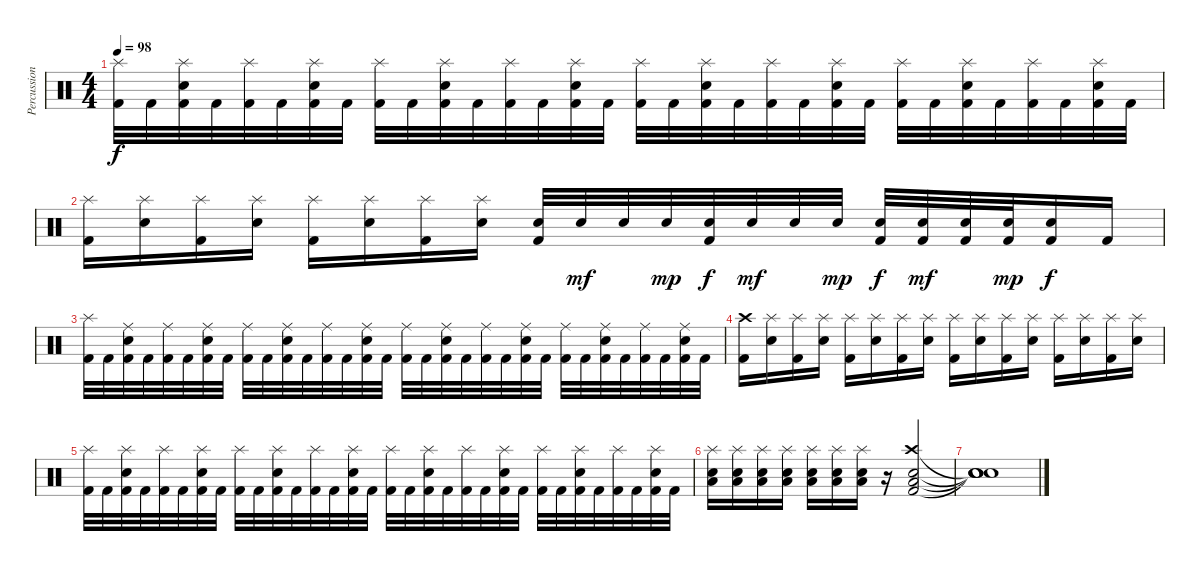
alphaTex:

\track ("Percussion" "Percussion") {instrument percussion}
\staff {score}
\articulation defaults
\ts (4 4)
\tempo 98
\clef neutral
\ks c
("Splash (hit)" "Kick (hit) 2").32{dy f} "Kick (hit) 2".32 ("Splash (hit)" "Snare (hit) 2" "Kick (hit) 2").32 "Kick (hit) 2".32 ("Splash (hit)" "Kick (hit) 2").32 "Kick (hit) 2".32 ("Splash (hit)" "Snare (hit) 2" "Kick (hit) 2").32 "Kick (hit) 2".32 ("Splash (hit)" "Kick (hit) 2").32 "Kick (hit) 2".32 ("Splash (hit)" "Snare (hit) 2" "Kick (hit) 2").32 "Kick (hit) 2".32 ("Splash (hit)" "Kick (hit) 2").32 "Kick (hit) 2".32 ("Splash (hit)" "Snare (hit) 2" "Kick (hit) 2").32 "Kick (hit) 2".32 ("Splash (hit)" "Kick (hit) 2").32 "Kick (hit) 2".32 ("Splash (hit)" "Snare (hit) 2" "Kick (hit) 2").32 "Kick (hit) 2".32 ("Splash (hit)" "Kick (hit) 2").32 "Kick (hit) 2".32 ("Splash (hit)" "Snare (hit) 2" "Kick (hit) 2").32 "Kick (hit) 2".32 ("Splash (hit)" "Kick (hit) 2").32 "Kick (hit) 2".32 ("Splash (hit)" "Snare (hit) 2" "Kick (hit) 2").32 "Kick (hit) 2".32 ("Splash (hit)" "Kick (hit) 2").32 "Kick (hit) 2".32 ("Splash (hit)" "Snare (hit) 2" "Kick (hit) 2").32 "Kick (hit) 2".32 |
("Splash (hit)" "Kick (hit) 2").16 ("Splash (hit)" "Snare (hit) 2").16 ("Splash (hit)" "Kick (hit) 2").16 ("Splash (hit)" "Snare (hit) 2").16 ("Splash (hit)" "Kick (hit) 2").16 ("Splash (hit)" "Snare (hit) 2").16 ("Splash (hit)" "Kick (hit) 2").16 ("Splash (hit)" "Snare (hit) 2").16 ("Snare (hit) 2" "Kick (hit) 2").32 "Snare (hit) 2".32{dy mf} "Snare (hit) 2".32 "Snare (hit) 2".32{dy mp} ("Snare (hit) 2" "Kick (hit) 2").32{dy f} "Snare (hit) 2".32{dy mf} "Snare (hit) 2".32 "Snare (hit) 2".32{dy mp} ("Snare (hit) 2" "Kick (hit) 2").32{dy f} ("Snare (hit) 2" "Kick (hit) 2").32{dy mf} ("Snare (hit) 2" "Kick (hit) 2").32 ("Snare (hit) 2" "Kick (hit) 2").32{dy mp} ("Snare (hit) 2" "Kick (hit) 2").16{dy f} "Kick (hit) 2".16 |
("Splash (hit)" "Kick (hit) 2").32 "Kick (hit) 2".32 ("Ride (middle)" "Snare (hit) 2" "Kick (hit) 2").32 "Kick (hit) 2".32 ("Ride (middle)" "Kick (hit) 2").32 "Kick (hit) 2".32 ("Ride (middle)" "Snare (hit) 2" "Kick (hit) 2").32 "Kick (hit) 2".32 ("Ride (middle)" "Kick (hit) 2").32 "Kick (hit) 2".32 ("Ride (middle)" "Snare (hit) 2" "Kick (hit) 2").32 "Kick (hit) 2".32 ("Ride (middle)" "Kick (hit) 2").32 "Kick (hit) 2".32 ("Ride (middle)" "Snare (hit) 2" "Kick (hit) 2").32 "Kick (hit) 2".32 ("Ride (middle)" "Kick (hit) 2").32 "Kick (hit) 2".32 ("Ride (middle)" "Snare (hit) 2" "Kick (hit) 2").32 "Kick (hit) 2".32 ("Ride (middle)" "Kick (hit) 2").32 "Kick (hit) 2".32 ("Ride (middle)" "Snare (hit) 2" "Kick (hit) 2").32 "Kick (hit) 2".32 ("Ride (middle)" "Kick (hit) 2").32 "Kick (hit) 2".32 ("Ride (middle)" "Snare (hit) 2" "Kick (hit) 2").32 "Kick (hit) 2".32 ("Ride (middle)" "Kick (hit) 2").32 "Kick (hit) 2".32 ("Ride (middle)" "Snare (hit) 2" "Kick (hit) 2").32 "Kick (hit) 2".32 |
("Crash high (hit)" "Kick (hit) 2").16 ("Splash (hit)" "Snare (hit) 2").16 ("Splash (hit)" "Kick (hit) 2").16 ("Splash (hit)" "Snare (hit) 2").16 ("Splash (hit)" "Kick (hit) 2").16 ("Splash (hit)" "Snare (hit) 2").16 ("Splash (hit)" "Kick (hit) 2").16 ("Splash (hit)" "Snare (hit) 2").16 ("Splash (hit)" "Kick (hit) 2").16 ("Splash (hit)" "Snare (hit) 2").16 ("Splash (hit)" "Kick (hit) 2").16 ("Splash (hit)" "Snare (hit) 2").16 ("Splash (hit)" "Kick (hit) 2").16 ("Splash (hit)" "Snare (hit) 2").16 ("Splash (hit)" "Kick (hit) 2").16 ("Splash (hit)" "Snare (hit) 2").16 |
("Splash (hit)" "Kick (hit) 2").32 "Kick (hit) 2".32 ("Splash (hit)" "Snare (hit) 2" "Kick (hit) 2").32 "Kick (hit) 2".32 ("Splash (hit)" "Kick (hit) 2").32 "Kick (hit) 2".32 ("Splash (hit)" "Snare (hit) 2" "Kick (hit) 2").32 "Kick (hit) 2".32 ("Splash (hit)" "Kick (hit) 2").32 "Kick (hit) 2".32 ("Splash (hit)" "Snare (hit) 2" "Kick (hit) 2").32 "Kick (hit) 2".32 ("Splash (hit)" "Kick (hit) 2").32 "Kick (hit) 2".32 ("Splash (hit)" "Snare (hit) 2" "Kick (hit) 2").32 "Kick (hit) 2".32 ("Splash (hit)" "Kick (hit) 2").32 "Kick (hit) 2".32 ("Splash (hit)" "Snare (hit) 2" "Kick (hit) 2").32 "Kick (hit) 2".32 ("Splash (hit)" "Kick (hit) 2").32 "Kick (hit) 2".32 ("Splash (hit)" "Snare (hit) 2" "Kick (hit) 2").32 "Kick (hit) 2".32 ("Splash (hit)" "Kick (hit) 2").32 "Kick (hit) 2".32 ("Splash (hit)" "Snare (hit) 2" "Kick (hit) 2").32 "Kick (hit) 2".32 ("Splash (hit)" "Kick (hit) 2").32 "Kick (hit) 2".32 ("Splash (hit)" "Snare (hit) 2" "Kick (hit) 2").32 "Kick (hit) 2".32 |
("Low Floor Tom (hit)" "Splash (hit)" "Snare (hit) 2").16 ("Low Floor Tom (hit)" "Splash (hit)" "Snare (hit) 2").16 ("Low Floor Tom (hit)" "Splash (hit)" "Snare (hit) 2").16 ("Low Floor Tom (hit)" "Splash (hit)" "Snare (hit) 2").16 ("Low Floor Tom (hit)" "Splash (hit)" "Snare (hit) 2").16 ("Low Floor Tom (hit)" "Splash (hit)" "Snare (hit) 2").16 ("Low Floor Tom (hit)" "Splash (hit)" "Snare (hit) 2").16 r.16 ("Low Floor Tom (hit)" "Crash high (hit)" "Snare (hit) 2" "Kick (hit) 2").2 |
("Snare (hit)"{t} "Snare (hit)"{t} "Snare (hit)"{t} "Snare (hit)"{t}).1
